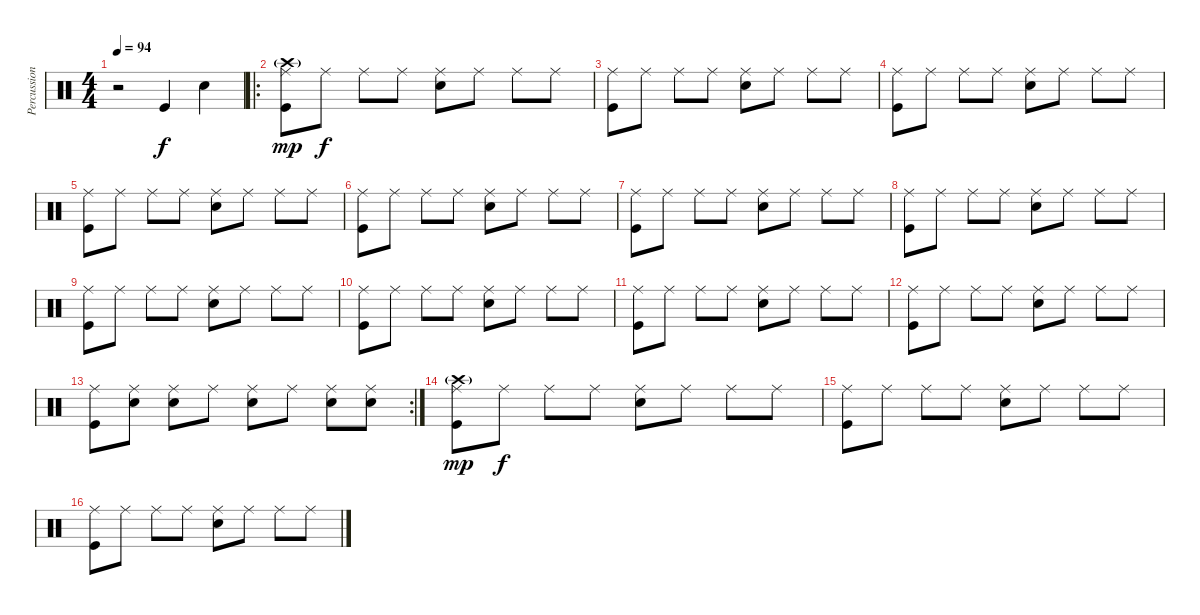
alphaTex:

\track ("Percussions" "Percussion") {instrument percussion}
\staff {score}
\articulation defaults
\ts (4 4)
\tempo 94
\clef neutral
\ks c
r.2{dy f} "Kick (hit)".4 "Snare (hit) 2".4 |
\ro
("Ride (middle)" "Crash high (hit)"{g} "Kick (hit)").8{dy mp} "Ride (middle)".8{dy f} "Ride (middle)".8 "Ride (middle)".8 ("Ride (middle)" "Snare (hit) 2").8 "Ride (middle)".8 "Ride (middle)".8 "Ride (middle)".8 |
("Ride (middle)" "Kick (hit)").8 "Ride (middle)".8 "Ride (middle)".8 "Ride (middle)".8 ("Ride (middle)" "Snare (hit) 2").8 "Ride (middle)".8 "Ride (middle)".8 "Ride (middle)".8 |
("Ride (middle)" "Kick (hit)").8 "Ride (middle)".8 "Ride (middle)".8 "Ride (middle)".8 ("Ride (middle)" "Snare (hit) 2").8 "Ride (middle)".8 "Ride (middle)".8 "Ride (middle)".8 |
("Ride (middle)" "Kick (hit)").8 "Ride (middle)".8 "Ride (middle)".8 "Ride (middle)".8 ("Ride (middle)" "Snare (hit) 2").8 "Ride (middle)".8 "Ride (middle)".8 "Ride (middle)".8 |
("Ride (middle)" "Kick (hit)").8 "Ride (middle)".8 "Ride (middle)".8 "Ride (middle)".8 ("Ride (middle)" "Snare (hit) 2").8 "Ride (middle)".8 "Ride (middle)".8 "Ride (middle)".8 |
("Ride (middle)" "Kick (hit)").8 "Ride (middle)".8 "Ride (middle)".8 "Ride (middle)".8 ("Ride (middle)" "Snare (hit) 2").8 "Ride (middle)".8 "Ride (middle)".8 "Ride (middle)".8 |
("Ride (middle)" "Kick (hit)").8 "Ride (middle)".8 "Ride (middle)".8 "Ride (middle)".8 ("Ride (middle)" "Snare (hit) 2").8 "Ride (middle)".8 "Ride (middle)".8 "Ride (middle)".8 |
("Ride (middle)" "Kick (hit)").8 "Ride (middle)".8 "Ride (middle)".8 "Ride (middle)".8 ("Ride (middle)" "Snare (hit) 2").8 "Ride (middle)".8 "Ride (middle)".8 "Ride (middle)".8 |
("Ride (middle)" "Kick (hit)").8 "Ride (middle)".8 "Ride (middle)".8 "Ride (middle)".8 ("Ride (middle)" "Snare (hit) 2").8 "Ride (middle)".8 "Ride (middle)".8 "Ride (middle)".8 |
("Ride (middle)" "Kick (hit)").8 "Ride (middle)".8 "Ride (middle)".8 "Ride (middle)".8 ("Ride (middle)" "Snare (hit) 2").8 "Ride (middle)".8 "Ride (middle)".8 "Ride (middle)".8 |
("Ride (middle)" "Kick (hit)").8 "Ride (middle)".8 "Ride (middle)".8 "Ride (middle)".8 ("Ride (middle)" "Snare (hit) 2").8 "Ride (middle)".8 "Ride (middle)".8 "Ride (middle)".8 |
\rc 2
("Ride (middle)" "Kick (hit)").8 ("Ride (middle)" "Snare (hit) 2").8 ("Ride (middle)" "Snare (hit) 2").8 "Ride (middle)".8 ("Ride (middle)" "Snare (hit) 2").8 "Ride (middle)".8 ("Ride (middle)" "Snare (hit) 2").8 ("Ride (middle)" "Snare (hit) 2").8 |
("Ride (middle)" "Crash high (hit)"{g} "Kick (hit)").8{dy mp} "Ride (middle)".8{dy f} "Ride (middle)".8 "Ride (middle)".8 ("Ride (middle)" "Snare (hit) 2").8 "Ride (middle)".8 "Ride (middle)".8 "Ride (middle)".8 |
("Ride (middle)" "Kick (hit)").8 "Ride (middle)".8 "Ride (middle)".8 "Ride (middle)".8 ("Ride (middle)" "Snare (hit) 2").8 "Ride (middle)".8 "Ride (middle)".8 "Ride (middle)".8 |
("Ride (middle)" "Kick (hit)").8 "Ride (middle)".8 "Ride (middle)".8 "Ride (middle)".8 ("Ride (middle)" "Snare (hit) 2").8 "Ride (middle)".8 "Ride (middle)".8 "Ride (middle)".8
